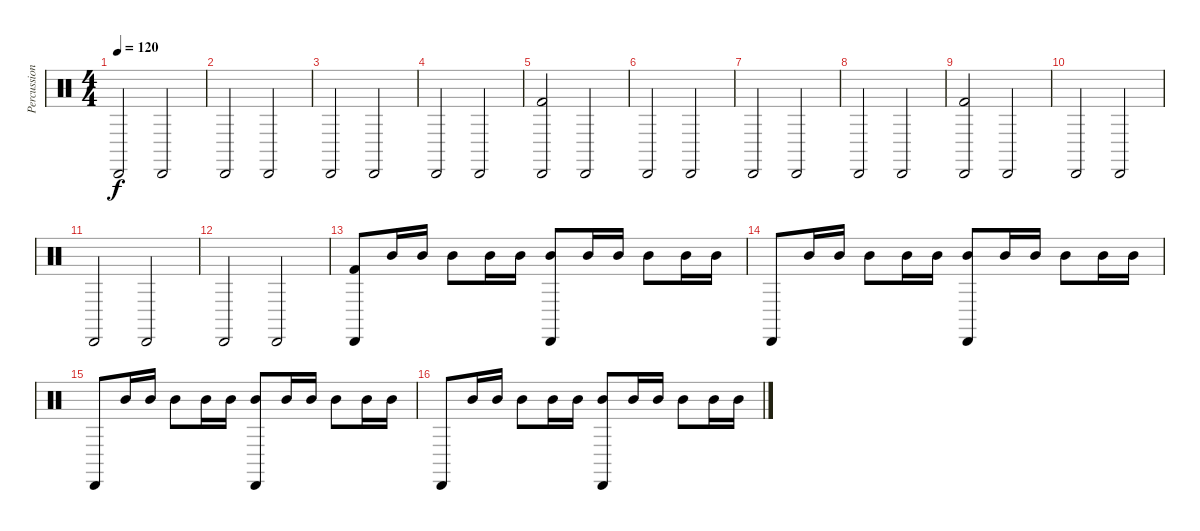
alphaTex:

\track ("Percussions" "Percussion") {instrument percussion}
\staff {score}
\articulation defaults
\ts (4 4)
\tempo 120
\clef neutral
\ks c "Cabasa (hit)".2{dy f} "Cabasa (hit)".2
|
"Cabasa (hit)".2 "Cabasa (hit)".2 |
"Cabasa (hit)".2 "Cabasa (hit)".2 |
"Cabasa (hit)".2 "Cabasa (hit)".2 |
("Cabasa (hit)" "Kick (hit) 2").2 "Cabasa (hit)".2 |
"Cabasa (hit)".2 "Cabasa (hit)".2 |
"Cabasa (hit)".2 "Cabasa (hit)".2 |
"Cabasa (hit)".2 "Cabasa (hit)".2 |
("Cabasa (hit)" "Kick (hit) 2").2 "Cabasa (hit)".2 |
"Cabasa (hit)".2 "Cabasa (hit)".2 |
"Cabasa (hit)".2 "Cabasa (hit)".2 |
"Cabasa (hit)".2 "Cabasa (hit)".2 |
("Cabasa (hit)" "Kick (hit) 2").8 "Mid Tom (hit)".16 "Mid Tom (hit)".16 "Mid Tom (hit)".8 "Mid Tom (hit)".16 "Mid Tom (hit)".16 ("Mid Tom (hit)" "Cabasa (hit)").8 "Mid Tom (hit)".16 "Mid Tom (hit)".16 "Mid Tom (hit)".8 "Mid Tom (hit)".16 "Mid Tom (hit)".16 |
"Cabasa (hit)".8 "Mid Tom (hit)".16 "Mid Tom (hit)".16 "Mid Tom (hit)".8 "Mid Tom (hit)".16 "Mid Tom (hit)".16 ("Mid Tom (hit)" "Cabasa (hit)").8 "Mid Tom (hit)".16 "Mid Tom (hit)".16 "Mid Tom (hit)".8 "Mid Tom (hit)".16 "Mid Tom (hit)".16 |
"Cabasa (hit)".8 "Mid Tom (hit)".16 "Mid Tom (hit)".16 "Mid Tom (hit)".8 "Mid Tom (hit)".16 "Mid Tom (hit)".16 ("Mid Tom (hit)" "Cabasa (hit)").8 "Mid Tom (hit)".16 "Mid Tom (hit)".16 "Mid Tom (hit)".8 "Mid Tom (hit)".16 "Mid Tom (hit)".16 |
"Cabasa (hit)".8 "Mid Tom (hit)".16 "Mid Tom (hit)".16 "Mid Tom (hit)".8 "Mid Tom (hit)".16 "Mid Tom (hit)".16 ("Mid Tom (hit)" "Cabasa (hit)").8 "Mid Tom (hit)".16 "Mid Tom (hit)".16 "Mid Tom (hit)".8 "Mid Tom (hit)".16 "Mid Tom (hit)".16
